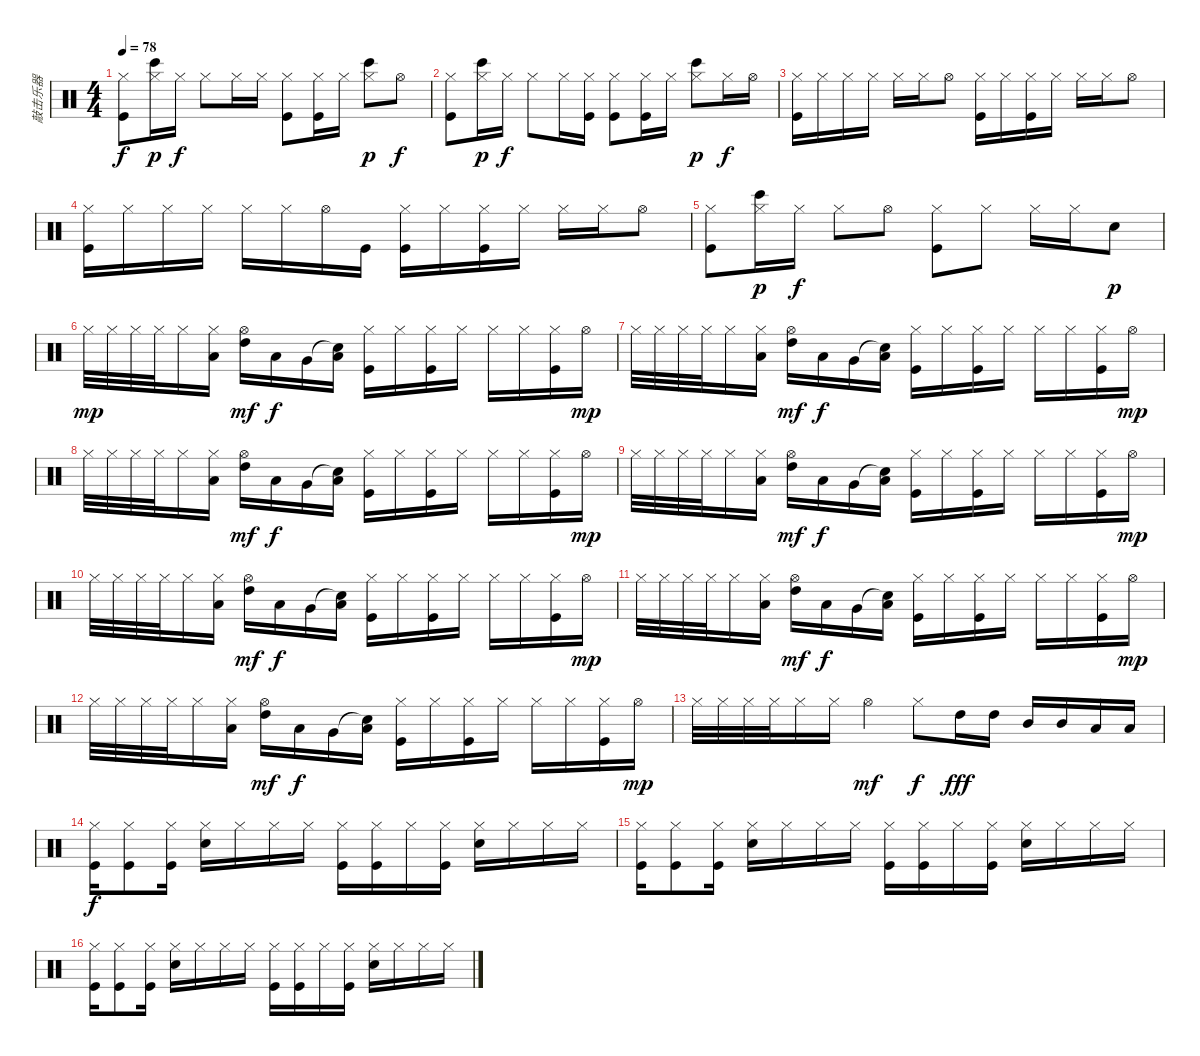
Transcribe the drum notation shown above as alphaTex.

\track ("敲击乐器" "敲击乐器") {instrument percussion}
\staff {score}
\articulation defaults
\ts (4 4)
\tempo 78
\clef neutral
\ks c
("Hi-Hat (closed)" "Kick (hit)").8{dy f} ("Hi-Hat (closed)" "Bongo High (hit)").16{dy p} "Hi-Hat (closed)".16{dy f} "Hi-Hat (closed)".8 "Hi-Hat (closed)".16 "Hi-Hat (closed)".16 ("Hi-Hat (closed)" "Kick (hit)").8 ("Hi-Hat (closed)" "Kick (hit)").16 "Hi-Hat (closed)".16 ("Hi-Hat (closed)" "Bongo High (hit)").8{dy p} "Hi-Hat (open)".8{dy f} |
("Hi-Hat (closed)" "Kick (hit)").8 ("Hi-Hat (closed)" "Bongo High (hit)").16{dy p} "Hi-Hat (closed)".16{dy f} "Hi-Hat (closed)".8 "Hi-Hat (closed)".16 ("Hi-Hat (closed)" "Kick (hit)").16 ("Hi-Hat (closed)" "Kick (hit)").8 ("Hi-Hat (closed)" "Kick (hit)").16 "Hi-Hat (closed)".16 ("Hi-Hat (closed)" "Bongo High (hit)").8{dy p} "Hi-Hat (closed)".16{dy f} "Hi-Hat (open)".16 |
("Hi-Hat (closed)" "Kick (hit)").16 "Hi-Hat (closed)".16 "Hi-Hat (closed)".16 "Hi-Hat (closed)".16 "Hi-Hat (closed)".16 "Hi-Hat (closed)".16 "Hi-Hat (open)".8 ("Hi-Hat (closed)" "Kick (hit)").16 "Hi-Hat (closed)".16 ("Hi-Hat (closed)" "Kick (hit)").16 "Hi-Hat (closed)".16 "Hi-Hat (closed)".16 "Hi-Hat (closed)".16 "Hi-Hat (open)".8 |
("Hi-Hat (closed)" "Kick (hit)").16 "Hi-Hat (closed)".16 "Hi-Hat (closed)".16 "Hi-Hat (closed)".16 "Hi-Hat (closed)".16 "Hi-Hat (closed)".16 "Hi-Hat (open)".16 "Kick (hit)".16 ("Hi-Hat (closed)" "Kick (hit)").16 "Hi-Hat (closed)".16 ("Hi-Hat (closed)" "Kick (hit)").16 "Hi-Hat (closed)".16 "Hi-Hat (closed)".16 "Hi-Hat (closed)".16 "Hi-Hat (open)".8 |
("Hi-Hat (closed)" "Kick (hit)").8 ("Hi-Hat (closed)" "Bongo High (hit)").16{dy p} "Hi-Hat (closed)".16{dy f} "Hi-Hat (closed)".8 "Hi-Hat (open)".8 ("Hi-Hat (closed)" "Kick (hit)").8 "Hi-Hat (closed)".8 "Hi-Hat (closed)".16 "Hi-Hat (closed)".16 "Snare (hit) 2".8{dy p} |
"Hi-Hat (closed)".32{dy mp} "Hi-Hat (closed)".32 "Hi-Hat (closed)".32 "Hi-Hat (closed)".32 "Hi-Hat (closed)".16 ("Hi-Hat (closed)" "Low Tom (hit)").16 ("Hi-Hat (open)" "High Tom (hit)").16{dy mf} "Low Tom (hit)".16{dy f} "Very Low Tom (hit)".16 ("Snare (hit)"{t} "Low Floor Tom (hit)").16 ("Hi-Hat (closed)" "Kick (hit)").16 "Hi-Hat (closed)".16 ("Hi-Hat (closed)" "Kick (hit)").16 "Hi-Hat (closed)".16 "Hi-Hat (closed)".16 "Hi-Hat (closed)".16 ("Kick (hit)" "Hi-Hat (closed)").16 "Hi-Hat (open)".16{dy mp} |
"Hi-Hat (closed)".32 "Hi-Hat (closed)".32 "Hi-Hat (closed)".32 "Hi-Hat (closed)".32 "Hi-Hat (closed)".16 ("Hi-Hat (closed)" "Low Tom (hit)").16 ("Hi-Hat (open)" "High Tom (hit)").16{dy mf} "Low Tom (hit)".16{dy f} "Very Low Tom (hit)".16 ("Snare (hit)"{t} "Low Floor Tom (hit)").16 ("Hi-Hat (closed)" "Kick (hit)").16 "Hi-Hat (closed)".16 ("Hi-Hat (closed)" "Kick (hit)").16 "Hi-Hat (closed)".16 "Hi-Hat (closed)".16 "Hi-Hat (closed)".16 ("Kick (hit)" "Hi-Hat (closed)").16 "Hi-Hat (open)".16{dy mp} |
"Hi-Hat (closed)".32 "Hi-Hat (closed)".32 "Hi-Hat (closed)".32 "Hi-Hat (closed)".32 "Hi-Hat (closed)".16 ("Hi-Hat (closed)" "Low Tom (hit)").16 ("Hi-Hat (open)" "High Tom (hit)").16{dy mf} "Low Tom (hit)".16{dy f} "Very Low Tom (hit)".16 ("Snare (hit)"{t} "Low Floor Tom (hit)").16 ("Hi-Hat (closed)" "Kick (hit)").16 "Hi-Hat (closed)".16 ("Hi-Hat (closed)" "Kick (hit)").16 "Hi-Hat (closed)".16 "Hi-Hat (closed)".16 "Hi-Hat (closed)".16 ("Kick (hit)" "Hi-Hat (closed)").16 "Hi-Hat (open)".16{dy mp} |
"Hi-Hat (closed)".32 "Hi-Hat (closed)".32 "Hi-Hat (closed)".32 "Hi-Hat (closed)".32 "Hi-Hat (closed)".16 ("Hi-Hat (closed)" "Low Tom (hit)").16 ("Hi-Hat (open)" "High Tom (hit)").16{dy mf} "Low Tom (hit)".16{dy f} "Very Low Tom (hit)".16 ("Snare (hit)"{t} "Low Floor Tom (hit)").16 ("Hi-Hat (closed)" "Kick (hit)").16 "Hi-Hat (closed)".16 ("Hi-Hat (closed)" "Kick (hit)").16 "Hi-Hat (closed)".16 "Hi-Hat (closed)".16 "Hi-Hat (closed)".16 ("Kick (hit)" "Hi-Hat (closed)").16 "Hi-Hat (open)".16{dy mp} |
"Hi-Hat (closed)".32 "Hi-Hat (closed)".32 "Hi-Hat (closed)".32 "Hi-Hat (closed)".32 "Hi-Hat (closed)".16 ("Hi-Hat (closed)" "Low Tom (hit)").16 ("Hi-Hat (open)" "High Tom (hit)").16{dy mf} "Low Tom (hit)".16{dy f} "Very Low Tom (hit)".16 ("Snare (hit)"{t} "Low Floor Tom (hit)").16 ("Hi-Hat (closed)" "Kick (hit)").16 "Hi-Hat (closed)".16 ("Hi-Hat (closed)" "Kick (hit)").16 "Hi-Hat (closed)".16 "Hi-Hat (closed)".16 "Hi-Hat (closed)".16 ("Kick (hit)" "Hi-Hat (closed)").16 "Hi-Hat (open)".16{dy mp} |
"Hi-Hat (closed)".32 "Hi-Hat (closed)".32 "Hi-Hat (closed)".32 "Hi-Hat (closed)".32 "Hi-Hat (closed)".16 ("Hi-Hat (closed)" "Low Tom (hit)").16 ("Hi-Hat (open)" "High Tom (hit)").16{dy mf} "Low Tom (hit)".16{dy f} "Very Low Tom (hit)".16 ("Snare (hit)"{t} "Low Floor Tom (hit)").16 ("Hi-Hat (closed)" "Kick (hit)").16 "Hi-Hat (closed)".16 ("Hi-Hat (closed)" "Kick (hit)").16 "Hi-Hat (closed)".16 "Hi-Hat (closed)".16 "Hi-Hat (closed)".16 ("Kick (hit)" "Hi-Hat (closed)").16 "Hi-Hat (open)".16{dy mp} |
"Hi-Hat (closed)".32 "Hi-Hat (closed)".32 "Hi-Hat (closed)".32 "Hi-Hat (closed)".32 "Hi-Hat (closed)".16 ("Hi-Hat (closed)" "Low Tom (hit)").16 ("Hi-Hat (open)" "High Tom (hit)").16{dy mf} "Low Tom (hit)".16{dy f} "Very Low Tom (hit)".16 ("Snare (hit)"{t} "Low Floor Tom (hit)").16 ("Hi-Hat (closed)" "Kick (hit)").16 "Hi-Hat (closed)".16 ("Hi-Hat (closed)" "Kick (hit)").16 "Hi-Hat (closed)".16 "Hi-Hat (closed)".16 "Hi-Hat (closed)".16 ("Kick (hit)" "Hi-Hat (closed)").16 "Hi-Hat (open)".16{dy mp} |
"Hi-Hat (closed)".32 "Hi-Hat (closed)".32 "Hi-Hat (closed)".32 "Hi-Hat (closed)".32 "Hi-Hat (closed)".16 "Hi-Hat (closed)".16 "Hi-Hat (open)".4{dy mf} "Hi-Hat (closed)".8{dy f} "High Tom (hit)".16{dy fff} "High Tom (hit)".16 "Mid Tom (hit)".16 "Mid Tom (hit)".16 "Low Tom (hit)".16 "Low Tom (hit)".16 |
("Hi-Hat (closed)" "Kick (hit)").16{dy f} ("Hi-Hat (closed)" "Kick (hit)").8 ("Hi-Hat (closed)" "Kick (hit)").16 ("Hi-Hat (closed)" "Snare (hit) 2").16 "Hi-Hat (closed)".16 "Hi-Hat (closed)".16 "Hi-Hat (closed)".16 ("Hi-Hat (closed)" "Kick (hit)").16 ("Hi-Hat (closed)" "Kick (hit)").16 "Hi-Hat (closed)".16 ("Hi-Hat (closed)" "Kick (hit)").16 ("Hi-Hat (closed)" "Snare (hit) 2").16 "Hi-Hat (closed)".16 "Hi-Hat (closed)".16 "Hi-Hat (closed)".16 |
("Hi-Hat (closed)" "Kick (hit)").16 ("Hi-Hat (closed)" "Kick (hit)").8 ("Hi-Hat (closed)" "Kick (hit)").16 ("Hi-Hat (closed)" "Snare (hit) 2").16 "Hi-Hat (closed)".16 "Hi-Hat (closed)".16 "Hi-Hat (closed)".16 ("Hi-Hat (closed)" "Kick (hit)").16 ("Hi-Hat (closed)" "Kick (hit)").16 "Hi-Hat (closed)".16 ("Hi-Hat (closed)" "Kick (hit)").16 ("Hi-Hat (closed)" "Snare (hit) 2").16 "Hi-Hat (closed)".16 "Hi-Hat (closed)".16 "Hi-Hat (closed)".16 |
("Hi-Hat (closed)" "Kick (hit)").16 ("Hi-Hat (closed)" "Kick (hit)").8 ("Hi-Hat (closed)" "Kick (hit)").16 ("Hi-Hat (closed)" "Snare (hit) 2").16 "Hi-Hat (closed)".16 "Hi-Hat (closed)".16 "Hi-Hat (closed)".16 ("Hi-Hat (closed)" "Kick (hit)").16 ("Hi-Hat (closed)" "Kick (hit)").16 "Hi-Hat (closed)".16 ("Hi-Hat (closed)" "Kick (hit)").16 ("Hi-Hat (closed)" "Snare (hit) 2").16 "Hi-Hat (closed)".16 "Hi-Hat (closed)".16 "Hi-Hat (closed)".16
